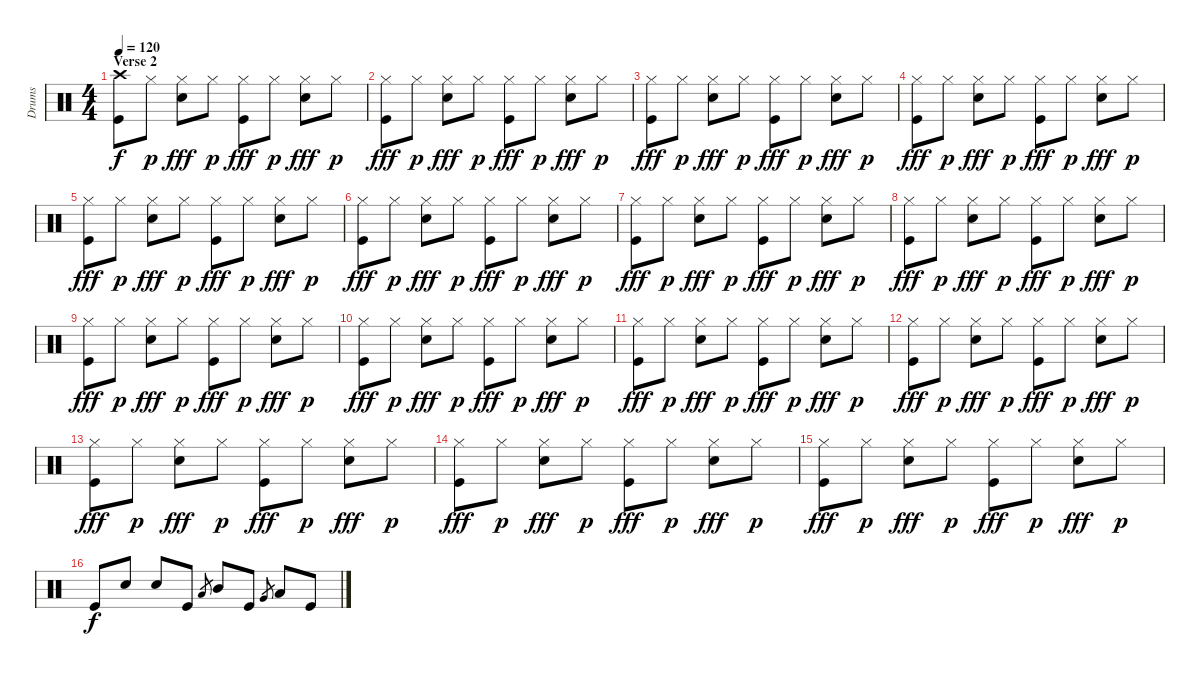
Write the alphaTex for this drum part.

\track ("Drums" "Drums") {instrument percussion}
\staff {score}
\articulation defaults
\ts (4 4)
\section ("" "Verse 2")
\tempo 120
\clef neutral
\ks c
("Crash high (hit)" "Kick (hit)").8{dy f} "Hi-Hat (closed)".8{dy p} ("Hi-Hat (closed)" "Electric Snare (hit)").8{dy fff} "Hi-Hat (closed)".8{dy p} ("Hi-Hat (closed)" "Kick (hit)").8{dy fff} "Hi-Hat (closed)".8{dy p} ("Hi-Hat (closed)" "Electric Snare (hit)").8{dy fff} "Hi-Hat (closed)".8{dy p} |
("Hi-Hat (closed)" "Kick (hit)").8{dy fff} "Hi-Hat (closed)".8{dy p} ("Hi-Hat (closed)" "Electric Snare (hit)").8{dy fff} "Hi-Hat (closed)".8{dy p} ("Hi-Hat (closed)" "Kick (hit)").8{dy fff} "Hi-Hat (closed)".8{dy p} ("Hi-Hat (closed)" "Electric Snare (hit)").8{dy fff} "Hi-Hat (closed)".8{dy p} |
("Hi-Hat (closed)" "Kick (hit)").8{dy fff} "Hi-Hat (closed)".8{dy p} ("Hi-Hat (closed)" "Electric Snare (hit)").8{dy fff} "Hi-Hat (closed)".8{dy p} ("Hi-Hat (closed)" "Kick (hit)").8{dy fff} "Hi-Hat (closed)".8{dy p} ("Hi-Hat (closed)" "Electric Snare (hit)").8{dy fff} "Hi-Hat (closed)".8{dy p} |
("Hi-Hat (closed)" "Kick (hit)").8{dy fff} "Hi-Hat (closed)".8{dy p} ("Hi-Hat (closed)" "Electric Snare (hit)").8{dy fff} "Hi-Hat (closed)".8{dy p} ("Hi-Hat (closed)" "Kick (hit)").8{dy fff} "Hi-Hat (closed)".8{dy p} ("Hi-Hat (closed)" "Electric Snare (hit)").8{dy fff} "Hi-Hat (closed)".8{dy p} |
("Hi-Hat (closed)" "Kick (hit)").8{dy fff} "Hi-Hat (closed)".8{dy p} ("Hi-Hat (closed)" "Electric Snare (hit)").8{dy fff} "Hi-Hat (closed)".8{dy p} ("Hi-Hat (closed)" "Kick (hit)").8{dy fff} "Hi-Hat (closed)".8{dy p} ("Hi-Hat (closed)" "Electric Snare (hit)").8{dy fff} "Hi-Hat (closed)".8{dy p} |
("Hi-Hat (closed)" "Kick (hit)").8{dy fff} "Hi-Hat (closed)".8{dy p} ("Hi-Hat (closed)" "Electric Snare (hit)").8{dy fff} "Hi-Hat (closed)".8{dy p} ("Hi-Hat (closed)" "Kick (hit)").8{dy fff} "Hi-Hat (closed)".8{dy p} ("Hi-Hat (closed)" "Electric Snare (hit)").8{dy fff} "Hi-Hat (closed)".8{dy p} |
("Hi-Hat (closed)" "Kick (hit)").8{dy fff} "Hi-Hat (closed)".8{dy p} ("Hi-Hat (closed)" "Electric Snare (hit)").8{dy fff} "Hi-Hat (closed)".8{dy p} ("Hi-Hat (closed)" "Kick (hit)").8{dy fff} "Hi-Hat (closed)".8{dy p} ("Hi-Hat (closed)" "Electric Snare (hit)").8{dy fff} "Hi-Hat (closed)".8{dy p} |
("Hi-Hat (closed)" "Kick (hit)").8{dy fff} "Hi-Hat (closed)".8{dy p} ("Hi-Hat (closed)" "Electric Snare (hit)").8{dy fff} "Hi-Hat (closed)".8{dy p} ("Hi-Hat (closed)" "Kick (hit)").8{dy fff} "Hi-Hat (closed)".8{dy p} ("Hi-Hat (closed)" "Electric Snare (hit)").8{dy fff} "Hi-Hat (closed)".8{dy p} |
("Hi-Hat (closed)" "Kick (hit)").8{dy fff} "Hi-Hat (closed)".8{dy p} ("Hi-Hat (closed)" "Electric Snare (hit)").8{dy fff} "Hi-Hat (closed)".8{dy p} ("Hi-Hat (closed)" "Kick (hit)").8{dy fff} "Hi-Hat (closed)".8{dy p} ("Hi-Hat (closed)" "Electric Snare (hit)").8{dy fff} "Hi-Hat (closed)".8{dy p} |
("Hi-Hat (closed)" "Kick (hit)").8{dy fff} "Hi-Hat (closed)".8{dy p} ("Hi-Hat (closed)" "Electric Snare (hit)").8{dy fff} "Hi-Hat (closed)".8{dy p} ("Hi-Hat (closed)" "Kick (hit)").8{dy fff} "Hi-Hat (closed)".8{dy p} ("Hi-Hat (closed)" "Electric Snare (hit)").8{dy fff} "Hi-Hat (closed)".8{dy p} |
("Hi-Hat (closed)" "Kick (hit)").8{dy fff} "Hi-Hat (closed)".8{dy p} ("Hi-Hat (closed)" "Electric Snare (hit)").8{dy fff} "Hi-Hat (closed)".8{dy p} ("Hi-Hat (closed)" "Kick (hit)").8{dy fff} "Hi-Hat (closed)".8{dy p} ("Hi-Hat (closed)" "Electric Snare (hit)").8{dy fff} "Hi-Hat (closed)".8{dy p} |
("Hi-Hat (closed)" "Kick (hit)").8{dy fff} "Hi-Hat (closed)".8{dy p} ("Hi-Hat (closed)" "Electric Snare (hit)").8{dy fff} "Hi-Hat (closed)".8{dy p} ("Hi-Hat (closed)" "Kick (hit)").8{dy fff} "Hi-Hat (closed)".8{dy p} ("Hi-Hat (closed)" "Electric Snare (hit)").8{dy fff} "Hi-Hat (closed)".8{dy p} |
("Hi-Hat (closed)" "Kick (hit)").8{dy fff} "Hi-Hat (closed)".8{dy p} ("Hi-Hat (closed)" "Electric Snare (hit)").8{dy fff} "Hi-Hat (closed)".8{dy p} ("Hi-Hat (closed)" "Kick (hit)").8{dy fff} "Hi-Hat (closed)".8{dy p} ("Hi-Hat (closed)" "Electric Snare (hit)").8{dy fff} "Hi-Hat (closed)".8{dy p} |
("Hi-Hat (closed)" "Kick (hit)").8{dy fff} "Hi-Hat (closed)".8{dy p} ("Hi-Hat (closed)" "Electric Snare (hit)").8{dy fff} "Hi-Hat (closed)".8{dy p} ("Hi-Hat (closed)" "Kick (hit)").8{dy fff} "Hi-Hat (closed)".8{dy p} ("Hi-Hat (closed)" "Electric Snare (hit)").8{dy fff} "Hi-Hat (closed)".8{dy p} |
("Hi-Hat (closed)" "Kick (hit)").8{dy fff} "Hi-Hat (closed)".8{dy p} ("Hi-Hat (closed)" "Electric Snare (hit)").8{dy fff} "Hi-Hat (closed)".8{dy p} ("Hi-Hat (closed)" "Kick (hit)").8{dy fff} "Hi-Hat (closed)".8{dy p} ("Hi-Hat (closed)" "Electric Snare (hit)").8{dy fff} "Hi-Hat (closed)".8{dy p} |
"Kick (hit)".8{dy f} "Electric Snare (hit)".8 "Electric Snare (hit)".8 "Kick (hit)".8 "Low Tom (hit)".8{gr} "Mid Tom (hit)".8 "Kick (hit)".8 "Very Low Tom (hit)".8{gr} "Low Tom (hit)".8 "Kick (hit)".8
